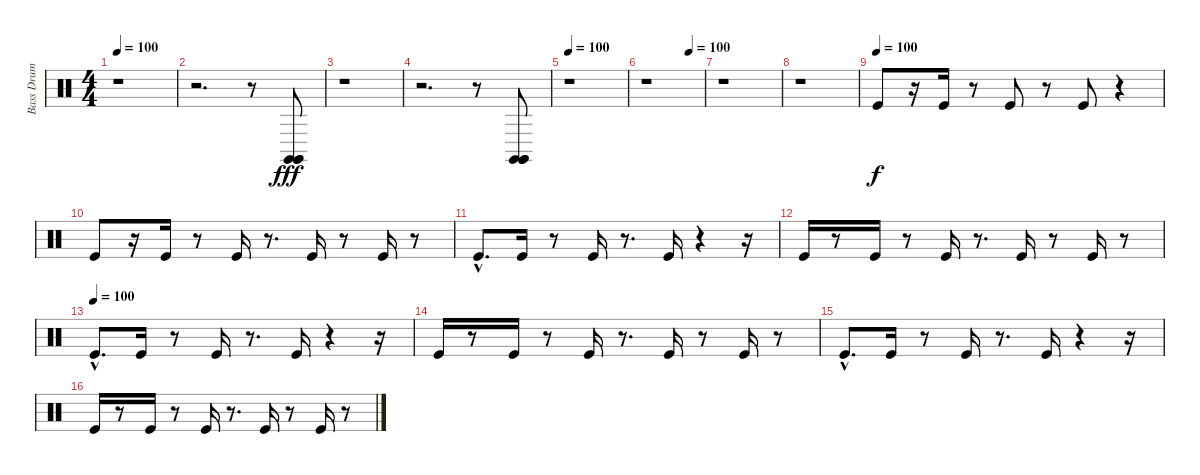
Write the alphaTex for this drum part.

\track ("Bass Drum" "Bass Drum") {instrument percussion}
\staff {score}
\articulation defaults
\ts (4 4)
\tempo 100
\clef neutral
\ks c
r.1{dy fff} |
r.2{d} r.8 ("Claves (hit)" "Claves (hit)" "Claves (hit)").8 |
r.1 |
r.2{d} r.8 ("Claves (hit)" "Claves (hit)" "Claves (hit)").8 |
\tempo 100
r.1 |
\tempo (100 0.75)
r.1 |
r.1 |
r.1 |
\tempo (100)
"Kick (hit)".8{dy f} r.16 "Kick (hit)".16 r.8 "Kick (hit)".8 r.8 "Kick (hit)".8 r.4 |
"Kick (hit)".8 r.16 "Kick (hit)".16 r.8 "Kick (hit)".16 r.8{d} "Kick (hit)".16 r.8 "Kick (hit)".16 r.8 |
"Kick (hit)"{hac}.8{d} "Kick (hit)".16 r.8 "Kick (hit)".16 r.8{d} "Kick (hit)".16 r.4 r.16 |
"Kick (hit)".16 r.8 "Kick (hit)".16 r.8 "Kick (hit)".16 r.8{d} "Kick (hit)".16 r.8 "Kick (hit)".16 r.8 |
\tempo (100)
"Kick (hit)"{hac}.8{d} "Kick (hit)".16 r.8 "Kick (hit)".16 r.8{d} "Kick (hit)".16 r.4 r.16 |
"Kick (hit)".16 r.8 "Kick (hit)".16 r.8 "Kick (hit)".16 r.8{d} "Kick (hit)".16 r.8 "Kick (hit)".16 r.8 |
"Kick (hit)"{hac}.8{d} "Kick (hit)".16 r.8 "Kick (hit)".16 r.8{d} "Kick (hit)".16 r.4 r.16 |
"Kick (hit)".16 r.8 "Kick (hit)".16 r.8 "Kick (hit)".16 r.8{d} "Kick (hit)".16 r.8 "Kick (hit)".16 r.8
